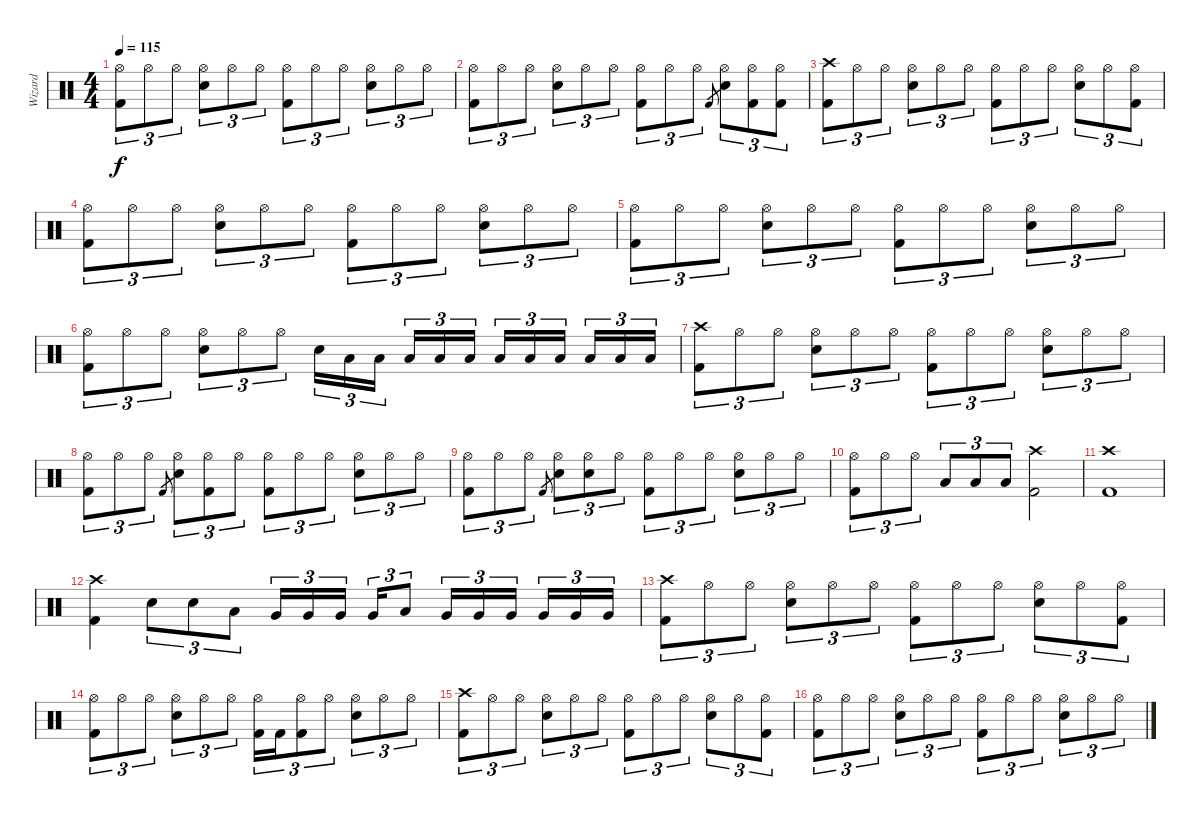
\track ("Wizard" "Wizard") {instrument percussion}
\staff {score}
\articulation defaults
\ts (4 4)
\tempo 115
\clef neutral
\ks c
("Hi-Hat (open)" "Kick (hit) 2").8{tu (3 2) dy f} "Hi-Hat (open)".8{tu (3 2)} "Hi-Hat (open)".8{tu (3 2)} ("Hi-Hat (open)" "Snare (hit) 2").8{tu (3 2)} "Hi-Hat (open)".8{tu (3 2)} "Hi-Hat (open)".8{tu (3 2)} ("Hi-Hat (open)" "Kick (hit) 2").8{tu (3 2)} "Hi-Hat (open)".8{tu (3 2)} "Hi-Hat (open)".8{tu (3 2)} ("Hi-Hat (open)" "Snare (hit) 2").8{tu (3 2)} "Hi-Hat (open)".8{tu (3 2)} "Hi-Hat (open)".8{tu (3 2)} |
("Hi-Hat (open)" "Kick (hit) 2").8{tu (3 2)} "Hi-Hat (open)".8{tu (3 2)} "Hi-Hat (open)".8{tu (3 2)} ("Hi-Hat (open)" "Snare (hit) 2").8{tu (3 2)} "Hi-Hat (open)".8{tu (3 2)} "Hi-Hat (open)".8{tu (3 2)} ("Hi-Hat (open)" "Kick (hit) 2").8{tu (3 2)} "Hi-Hat (open)".8{tu (3 2)} "Hi-Hat (open)".8{tu (3 2)} "Kick (hit) 2".8{gr} ("Hi-Hat (open)" "Snare (hit) 2").8{tu (3 2)} ("Hi-Hat (open)" "Kick (hit) 2").8{tu (3 2)} ("Hi-Hat (open)" "Kick (hit) 2").8{tu (3 2)} |
("Crash high (hit)" "Kick (hit) 2").8{tu (3 2)} "Hi-Hat (open)".8{tu (3 2)} "Hi-Hat (open)".8{tu (3 2)} ("Hi-Hat (open)" "Snare (hit) 2").8{tu (3 2)} "Hi-Hat (open)".8{tu (3 2)} "Hi-Hat (open)".8{tu (3 2)} ("Hi-Hat (open)" "Kick (hit) 2").8{tu (3 2)} "Hi-Hat (open)".8{tu (3 2)} "Hi-Hat (open)".8{tu (3 2)} ("Hi-Hat (open)" "Snare (hit) 2").8{tu (3 2)} "Hi-Hat (open)".8{tu (3 2)} ("Hi-Hat (open)" "Kick (hit) 2").8{tu (3 2)} |
("Hi-Hat (open)" "Kick (hit) 2").8{tu (3 2)} "Hi-Hat (open)".8{tu (3 2)} "Hi-Hat (open)".8{tu (3 2)} ("Hi-Hat (open)" "Snare (hit) 2").8{tu (3 2)} "Hi-Hat (open)".8{tu (3 2)} "Hi-Hat (open)".8{tu (3 2)} ("Hi-Hat (open)" "Kick (hit) 2").8{tu (3 2)} "Hi-Hat (open)".8{tu (3 2)} "Hi-Hat (open)".8{tu (3 2)} ("Hi-Hat (open)" "Snare (hit) 2").8{tu (3 2)} "Hi-Hat (open)".8{tu (3 2)} "Hi-Hat (open)".8{tu (3 2)} |
("Hi-Hat (open)" "Kick (hit) 2").8{tu (3 2)} "Hi-Hat (open)".8{tu (3 2)} "Hi-Hat (open)".8{tu (3 2)} ("Hi-Hat (open)" "Snare (hit) 2").8{tu (3 2)} "Hi-Hat (open)".8{tu (3 2)} "Hi-Hat (open)".8{tu (3 2)} ("Hi-Hat (open)" "Kick (hit) 2").8{tu (3 2)} "Hi-Hat (open)".8{tu (3 2)} "Hi-Hat (open)".8{tu (3 2)} ("Hi-Hat (open)" "Snare (hit) 2").8{tu (3 2)} "Hi-Hat (open)".8{tu (3 2)} "Hi-Hat (open)".8{tu (3 2)} |
("Hi-Hat (open)" "Kick (hit) 2").8{tu (3 2)} "Hi-Hat (open)".8{tu (3 2)} "Hi-Hat (open)".8{tu (3 2)} ("Hi-Hat (open)" "Snare (hit) 2").8{tu (3 2)} "Hi-Hat (open)".8{tu (3 2)} "Hi-Hat (open)".8{tu (3 2)} "Snare (hit) 2".16{tu (3 2)} "Low Tom (hit)".16{tu (3 2)} "Low Tom (hit)".16{tu (3 2) beam splitsecondary} "Low Tom (hit)".16{tu (3 2)} "Low Tom (hit)".16{tu (3 2)} "Low Tom (hit)".16{tu (3 2)} "Low Tom (hit)".16{tu (3 2)} "Low Tom (hit)".16{tu (3 2)} "Low Tom (hit)".16{tu (3 2) beam splitsecondary} "Low Tom (hit)".16{tu (3 2)} "Low Tom (hit)".16{tu (3 2)} "Low Tom (hit)".16{tu (3 2)} |
("Crash high (hit)" "Kick (hit) 2").8{tu (3 2)} "Hi-Hat (open)".8{tu (3 2)} "Hi-Hat (open)".8{tu (3 2)} ("Hi-Hat (open)" "Snare (hit) 2").8{tu (3 2)} "Hi-Hat (open)".8{tu (3 2)} "Hi-Hat (open)".8{tu (3 2)} ("Hi-Hat (open)" "Kick (hit) 2").8{tu (3 2)} "Hi-Hat (open)".8{tu (3 2)} "Hi-Hat (open)".8{tu (3 2)} ("Hi-Hat (open)" "Snare (hit) 2").8{tu (3 2)} "Hi-Hat (open)".8{tu (3 2)} "Hi-Hat (open)".8{tu (3 2)} |
("Hi-Hat (open)" "Kick (hit) 2").8{tu (3 2)} "Hi-Hat (open)".8{tu (3 2)} "Hi-Hat (open)".8{tu (3 2)} "Kick (hit) 2".8{gr} ("Hi-Hat (open)" "Snare (hit) 2").8{tu (3 2)} ("Hi-Hat (open)" "Kick (hit) 2").8{tu (3 2)} "Hi-Hat (open)".8{tu (3 2)} ("Hi-Hat (open)" "Kick (hit) 2").8{tu (3 2)} "Hi-Hat (open)".8{tu (3 2)} "Hi-Hat (open)".8{tu (3 2)} ("Hi-Hat (open)" "Snare (hit) 2").8{tu (3 2)} "Hi-Hat (open)".8{tu (3 2)} "Hi-Hat (open)".8{tu (3 2)} |
("Hi-Hat (open)" "Kick (hit) 2").8{tu (3 2)} "Hi-Hat (open)".8{tu (3 2)} "Hi-Hat (open)".8{tu (3 2)} "Kick (hit) 2".8{gr} ("Hi-Hat (open)" "Snare (hit) 2").8{tu (3 2)} ("Hi-Hat (open)" "Snare (hit) 2").8{tu (3 2)} "Hi-Hat (open)".8{tu (3 2)} ("Hi-Hat (open)" "Kick (hit) 2").8{tu (3 2)} "Hi-Hat (open)".8{tu (3 2)} "Hi-Hat (open)".8{tu (3 2)} ("Hi-Hat (open)" "Snare (hit) 2").8{tu (3 2)} "Hi-Hat (open)".8{tu (3 2)} "Hi-Hat (open)".8{tu (3 2)} |
("Hi-Hat (open)" "Kick (hit) 2").8{tu (3 2)} "Hi-Hat (open)".8{tu (3 2)} "Hi-Hat (open)".8{tu (3 2)} "Low Tom (hit)".8{tu (3 2)} "Low Tom (hit)".8{tu (3 2)} "Low Tom (hit)".8{tu (3 2)} ("Crash high (hit)" "Kick (hit) 2").2 |
("Crash high (hit)" "Kick (hit) 2").1 |
("Crash high (hit)" "Kick (hit) 2").4 "Snare (hit) 2".8{tu (3 2)} "Snare (hit) 2".8{tu (3 2)} "Low Tom (hit)".8{tu (3 2)} "Very Low Tom (hit)".16{tu (3 2)} "Very Low Tom (hit)".16{tu (3 2)} "Very Low Tom (hit)".16{tu (3 2) beam splitsecondary} "Very Low Tom (hit)".16{tu (3 2)} "Low Tom (hit)".8{tu (3 2)} "Very Low Tom (hit)".16{tu (3 2)} "Very Low Tom (hit)".16{tu (3 2)} "Very Low Tom (hit)".16{tu (3 2) beam splitsecondary} "Very Low Tom (hit)".16{tu (3 2)} "Very Low Tom (hit)".16{tu (3 2)} "Very Low Tom (hit)".16{tu (3 2)} |
("Crash high (hit)" "Kick (hit) 2").8{tu (3 2)} "Hi-Hat (open)".8{tu (3 2)} "Hi-Hat (open)".8{tu (3 2)} ("Hi-Hat (open)" "Snare (hit) 2").8{tu (3 2)} "Hi-Hat (open)".8{tu (3 2)} "Hi-Hat (open)".8{tu (3 2)} ("Hi-Hat (open)" "Kick (hit) 2").8{tu (3 2)} "Hi-Hat (open)".8{tu (3 2)} "Hi-Hat (open)".8{tu (3 2)} ("Hi-Hat (open)" "Snare (hit) 2").8{tu (3 2)} "Hi-Hat (open)".8{tu (3 2)} ("Hi-Hat (open)" "Kick (hit) 2").8{tu (3 2)} |
("Hi-Hat (open)" "Kick (hit) 2").8{tu (3 2)} "Hi-Hat (open)".8{tu (3 2)} "Hi-Hat (open)".8{tu (3 2)} ("Hi-Hat (open)" "Snare (hit) 2").8{tu (3 2)} "Hi-Hat (open)".8{tu (3 2)} "Hi-Hat (open)".8{tu (3 2)} ("Hi-Hat (open)" "Kick (hit) 2").16{tu (3 2)} "Kick (hit) 2".16{tu (3 2)} ("Hi-Hat (open)" "Kick (hit) 2").8{tu (3 2)} "Hi-Hat (open)".8{tu (3 2)} ("Hi-Hat (open)" "Snare (hit) 2").8{tu (3 2)} "Hi-Hat (open)".8{tu (3 2)} "Hi-Hat (open)".8{tu (3 2)} |
("Crash high (hit)" "Kick (hit) 2").8{tu (3 2)} "Hi-Hat (open)".8{tu (3 2)} "Hi-Hat (open)".8{tu (3 2)} ("Hi-Hat (open)" "Snare (hit) 2").8{tu (3 2)} "Hi-Hat (open)".8{tu (3 2)} "Hi-Hat (open)".8{tu (3 2)} ("Hi-Hat (open)" "Kick (hit) 2").8{tu (3 2)} "Hi-Hat (open)".8{tu (3 2)} "Hi-Hat (open)".8{tu (3 2)} ("Hi-Hat (open)" "Snare (hit) 2").8{tu (3 2)} "Hi-Hat (open)".8{tu (3 2)} ("Hi-Hat (open)" "Kick (hit) 2").8{tu (3 2)} |
("Hi-Hat (open)" "Kick (hit) 2").8{tu (3 2)} "Hi-Hat (open)".8{tu (3 2)} "Hi-Hat (open)".8{tu (3 2)} ("Hi-Hat (open)" "Snare (hit) 2").8{tu (3 2)} "Hi-Hat (open)".8{tu (3 2)} "Hi-Hat (open)".8{tu (3 2)} ("Hi-Hat (open)" "Kick (hit) 2").8{tu (3 2)} "Hi-Hat (open)".8{tu (3 2)} "Hi-Hat (open)".8{tu (3 2)} ("Hi-Hat (open)" "Snare (hit) 2").8{tu (3 2)} "Hi-Hat (open)".8{tu (3 2)} "Hi-Hat (open)".8{tu (3 2)}
